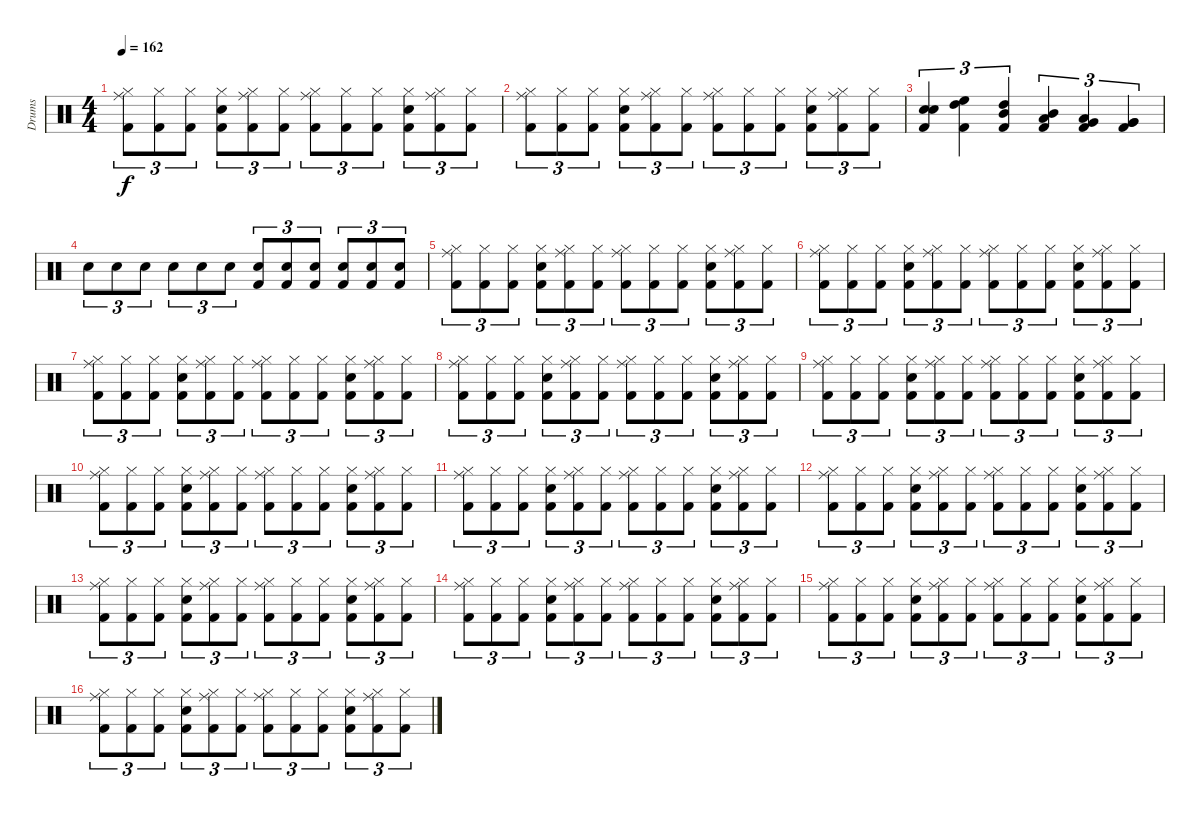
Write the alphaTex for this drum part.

\track ("Drums" "Drums") {instrument percussion}
\staff {score}
\articulation defaults
\ts (4 4)
\tempo 162
\clef neutral
\ks c
("Kick (hit) 2" "Ride (middle)" "Hi-Hat (closed)").8{tu (3 2) dy f} ("Kick (hit) 2" "Hi-Hat (closed)").8{tu (3 2)} ("Kick (hit) 2" "Hi-Hat (closed)").8{tu (3 2)} ("Kick (hit) 2" "Electric Snare (hit)" "Hi-Hat (closed)").8{tu (3 2)} ("Kick (hit) 2" "Ride (middle)" "Hi-Hat (closed)").8{tu (3 2)} ("Kick (hit) 2" "Hi-Hat (closed)").8{tu (3 2)} ("Kick (hit) 2" "Ride (middle)" "Hi-Hat (closed)").8{tu (3 2)} ("Kick (hit) 2" "Hi-Hat (closed)").8{tu (3 2)} ("Kick (hit) 2" "Hi-Hat (closed)").8{tu (3 2)} ("Kick (hit) 2" "Electric Snare (hit)" "Hi-Hat (closed)").8{tu (3 2)} ("Kick (hit) 2" "Ride (middle)" "Hi-Hat (closed)").8{tu (3 2)} ("Kick (hit) 2" "Hi-Hat (closed)").8{tu (3 2)} |
("Kick (hit) 2" "Ride (middle)" "Hi-Hat (closed)").8{tu (3 2)} ("Kick (hit) 2" "Hi-Hat (closed)").8{tu (3 2)} ("Kick (hit) 2" "Hi-Hat (closed)").8{tu (3 2)} ("Kick (hit) 2" "Electric Snare (hit)" "Hi-Hat (closed)").8{tu (3 2)} ("Kick (hit) 2" "Ride (middle)" "Hi-Hat (closed)").8{tu (3 2)} ("Kick (hit) 2" "Hi-Hat (closed)").8{tu (3 2)} ("Kick (hit) 2" "Ride (middle)" "Hi-Hat (closed)").8{tu (3 2)} ("Kick (hit) 2" "Hi-Hat (closed)").8{tu (3 2)} ("Kick (hit) 2" "Hi-Hat (closed)").8{tu (3 2)} ("Kick (hit) 2" "Electric Snare (hit)" "Hi-Hat (closed)").8{tu (3 2)} ("Kick (hit) 2" "Ride (middle)" "Hi-Hat (closed)").8{tu (3 2)} ("Kick (hit) 2" "Hi-Hat (closed)").8{tu (3 2)} |
("Electric Snare (hit)" "Snare (hit) 2" "Kick (hit) 2").4{tu (3 2)} ("High Tom (hit)" "High Floor Tom (hit)" "Kick (hit) 2").4{tu (3 2)} ("Mid Tom (hit)" "High Tom (hit)" "Kick (hit) 2").4{tu (3 2)} ("Low Tom (hit)" "Mid Tom (hit)" "Kick (hit) 2").4{tu (3 2)} ("Very Low Tom (hit)" "Low Tom (hit)" "Kick (hit) 2").4{tu (3 2)} ("Very Low Tom (hit)" "Very Low Tom (hit)" "Kick (hit) 2").4{tu (3 2)} |
"Electric Snare (hit)".8{tu (3 2)} "Electric Snare (hit)".8{tu (3 2)} "Electric Snare (hit)".8{tu (3 2)} "Electric Snare (hit)".8{tu (3 2)} "Electric Snare (hit)".8{tu (3 2)} "Electric Snare (hit)".8{tu (3 2)} ("Kick (hit) 2" "Snare (hit) 2").8{tu (3 2)} ("Kick (hit) 2" "Snare (hit) 2").8{tu (3 2)} ("Kick (hit) 2" "Snare (hit) 2").8{tu (3 2)} ("Kick (hit) 2" "Snare (hit) 2").8{tu (3 2)} ("Kick (hit) 2" "Snare (hit) 2").8{tu (3 2)} ("Kick (hit) 2" "Snare (hit) 2").8{tu (3 2)} |
("Kick (hit) 2" "Ride (middle)" "Hi-Hat (closed)").8{tu (3 2)} ("Kick (hit) 2" "Hi-Hat (closed)").8{tu (3 2)} ("Kick (hit) 2" "Hi-Hat (closed)").8{tu (3 2)} ("Kick (hit) 2" "Snare (hit) 2" "Hi-Hat (closed)").8{tu (3 2)} ("Kick (hit) 2" "Ride (middle)" "Hi-Hat (closed)").8{tu (3 2)} ("Kick (hit) 2" "Hi-Hat (closed)").8{tu (3 2)} ("Kick (hit) 2" "Ride (middle)" "Hi-Hat (closed)").8{tu (3 2)} ("Kick (hit) 2" "Hi-Hat (closed)").8{tu (3 2)} ("Kick (hit) 2" "Hi-Hat (closed)").8{tu (3 2)} ("Kick (hit) 2" "Snare (hit) 2" "Hi-Hat (closed)").8{tu (3 2)} ("Kick (hit) 2" "Ride (middle)" "Hi-Hat (closed)").8{tu (3 2)} ("Kick (hit) 2" "Hi-Hat (closed)").8{tu (3 2)} |
("Kick (hit) 2" "Ride (middle)" "Hi-Hat (closed)").8{tu (3 2)} ("Kick (hit) 2" "Hi-Hat (closed)").8{tu (3 2)} ("Kick (hit) 2" "Hi-Hat (closed)").8{tu (3 2)} ("Kick (hit) 2" "Snare (hit) 2" "Hi-Hat (closed)").8{tu (3 2)} ("Kick (hit) 2" "Ride (middle)" "Hi-Hat (closed)").8{tu (3 2)} ("Kick (hit) 2" "Hi-Hat (closed)").8{tu (3 2)} ("Kick (hit) 2" "Ride (middle)" "Hi-Hat (closed)").8{tu (3 2)} ("Kick (hit) 2" "Hi-Hat (closed)").8{tu (3 2)} ("Kick (hit) 2" "Hi-Hat (closed)").8{tu (3 2)} ("Kick (hit) 2" "Snare (hit) 2" "Hi-Hat (closed)").8{tu (3 2)} ("Kick (hit) 2" "Ride (middle)" "Hi-Hat (closed)").8{tu (3 2)} ("Kick (hit) 2" "Hi-Hat (closed)").8{tu (3 2)} |
("Kick (hit) 2" "Ride (middle)" "Hi-Hat (closed)").8{tu (3 2)} ("Kick (hit) 2" "Hi-Hat (closed)").8{tu (3 2)} ("Kick (hit) 2" "Hi-Hat (closed)").8{tu (3 2)} ("Kick (hit) 2" "Snare (hit) 2" "Hi-Hat (closed)").8{tu (3 2)} ("Kick (hit) 2" "Ride (middle)" "Hi-Hat (closed)").8{tu (3 2)} ("Kick (hit) 2" "Hi-Hat (closed)").8{tu (3 2)} ("Kick (hit) 2" "Ride (middle)" "Hi-Hat (closed)").8{tu (3 2)} ("Kick (hit) 2" "Hi-Hat (closed)").8{tu (3 2)} ("Kick (hit) 2" "Hi-Hat (closed)").8{tu (3 2)} ("Kick (hit) 2" "Snare (hit) 2" "Hi-Hat (closed)").8{tu (3 2)} ("Kick (hit) 2" "Ride (middle)" "Hi-Hat (closed)").8{tu (3 2)} ("Kick (hit) 2" "Hi-Hat (closed)").8{tu (3 2)} |
("Kick (hit) 2" "Ride (middle)" "Hi-Hat (closed)").8{tu (3 2)} ("Kick (hit) 2" "Hi-Hat (closed)").8{tu (3 2)} ("Kick (hit) 2" "Hi-Hat (closed)").8{tu (3 2)} ("Kick (hit) 2" "Snare (hit) 2" "Hi-Hat (closed)").8{tu (3 2)} ("Kick (hit) 2" "Ride (middle)" "Hi-Hat (closed)").8{tu (3 2)} ("Kick (hit) 2" "Hi-Hat (closed)").8{tu (3 2)} ("Kick (hit) 2" "Ride (middle)" "Hi-Hat (closed)").8{tu (3 2)} ("Kick (hit) 2" "Hi-Hat (closed)").8{tu (3 2)} ("Kick (hit) 2" "Hi-Hat (closed)").8{tu (3 2)} ("Kick (hit) 2" "Snare (hit) 2" "Hi-Hat (closed)").8{tu (3 2)} ("Kick (hit) 2" "Ride (middle)" "Hi-Hat (closed)").8{tu (3 2)} ("Kick (hit) 2" "Hi-Hat (closed)").8{tu (3 2)} |
("Kick (hit) 2" "Ride (middle)" "Hi-Hat (closed)").8{tu (3 2)} ("Kick (hit) 2" "Hi-Hat (closed)").8{tu (3 2)} ("Kick (hit) 2" "Hi-Hat (closed)").8{tu (3 2)} ("Kick (hit) 2" "Snare (hit) 2" "Hi-Hat (closed)").8{tu (3 2)} ("Kick (hit) 2" "Ride (middle)" "Hi-Hat (closed)").8{tu (3 2)} ("Kick (hit) 2" "Hi-Hat (closed)").8{tu (3 2)} ("Kick (hit) 2" "Ride (middle)" "Hi-Hat (closed)").8{tu (3 2)} ("Kick (hit) 2" "Hi-Hat (closed)").8{tu (3 2)} ("Kick (hit) 2" "Hi-Hat (closed)").8{tu (3 2)} ("Kick (hit) 2" "Snare (hit) 2" "Hi-Hat (closed)").8{tu (3 2)} ("Kick (hit) 2" "Ride (middle)" "Hi-Hat (closed)").8{tu (3 2)} ("Kick (hit) 2" "Hi-Hat (closed)").8{tu (3 2)} |
("Kick (hit) 2" "Ride (middle)" "Hi-Hat (closed)").8{tu (3 2)} ("Kick (hit) 2" "Hi-Hat (closed)").8{tu (3 2)} ("Kick (hit) 2" "Hi-Hat (closed)").8{tu (3 2)} ("Kick (hit) 2" "Snare (hit) 2" "Hi-Hat (closed)").8{tu (3 2)} ("Kick (hit) 2" "Ride (middle)" "Hi-Hat (closed)").8{tu (3 2)} ("Kick (hit) 2" "Hi-Hat (closed)").8{tu (3 2)} ("Kick (hit) 2" "Ride (middle)" "Hi-Hat (closed)").8{tu (3 2)} ("Kick (hit) 2" "Hi-Hat (closed)").8{tu (3 2)} ("Kick (hit) 2" "Hi-Hat (closed)").8{tu (3 2)} ("Kick (hit) 2" "Snare (hit) 2" "Hi-Hat (closed)").8{tu (3 2)} ("Kick (hit) 2" "Ride (middle)" "Hi-Hat (closed)").8{tu (3 2)} ("Kick (hit) 2" "Hi-Hat (closed)").8{tu (3 2)} |
("Kick (hit) 2" "Ride (middle)" "Hi-Hat (closed)").8{tu (3 2)} ("Kick (hit) 2" "Hi-Hat (closed)").8{tu (3 2)} ("Kick (hit) 2" "Hi-Hat (closed)").8{tu (3 2)} ("Kick (hit) 2" "Snare (hit) 2" "Hi-Hat (closed)").8{tu (3 2)} ("Kick (hit) 2" "Ride (middle)" "Hi-Hat (closed)").8{tu (3 2)} ("Kick (hit) 2" "Hi-Hat (closed)").8{tu (3 2)} ("Kick (hit) 2" "Ride (middle)" "Hi-Hat (closed)").8{tu (3 2)} ("Kick (hit) 2" "Hi-Hat (closed)").8{tu (3 2)} ("Kick (hit) 2" "Hi-Hat (closed)").8{tu (3 2)} ("Kick (hit) 2" "Snare (hit) 2" "Hi-Hat (closed)").8{tu (3 2)} ("Kick (hit) 2" "Ride (middle)" "Hi-Hat (closed)").8{tu (3 2)} ("Kick (hit) 2" "Hi-Hat (closed)").8{tu (3 2)} |
("Kick (hit) 2" "Ride (middle)" "Hi-Hat (closed)").8{tu (3 2)} ("Kick (hit) 2" "Hi-Hat (closed)").8{tu (3 2)} ("Kick (hit) 2" "Hi-Hat (closed)").8{tu (3 2)} ("Kick (hit) 2" "Snare (hit) 2" "Hi-Hat (closed)").8{tu (3 2)} ("Kick (hit) 2" "Ride (middle)" "Hi-Hat (closed)").8{tu (3 2)} ("Kick (hit) 2" "Hi-Hat (closed)").8{tu (3 2)} ("Kick (hit) 2" "Ride (middle)" "Hi-Hat (closed)").8{tu (3 2)} ("Kick (hit) 2" "Hi-Hat (closed)").8{tu (3 2)} ("Kick (hit) 2" "Hi-Hat (closed)").8{tu (3 2)} ("Kick (hit) 2" "Snare (hit) 2" "Hi-Hat (closed)").8{tu (3 2)} ("Kick (hit) 2" "Ride (middle)" "Hi-Hat (closed)").8{tu (3 2)} ("Kick (hit) 2" "Hi-Hat (closed)").8{tu (3 2)} |
("Kick (hit) 2" "Ride (middle)" "Hi-Hat (closed)").8{tu (3 2)} ("Kick (hit) 2" "Hi-Hat (closed)").8{tu (3 2)} ("Kick (hit) 2" "Hi-Hat (closed)").8{tu (3 2)} ("Kick (hit) 2" "Snare (hit) 2" "Hi-Hat (closed)").8{tu (3 2)} ("Kick (hit) 2" "Ride (middle)" "Hi-Hat (closed)").8{tu (3 2)} ("Kick (hit) 2" "Hi-Hat (closed)").8{tu (3 2)} ("Kick (hit) 2" "Ride (middle)" "Hi-Hat (closed)").8{tu (3 2)} ("Kick (hit) 2" "Hi-Hat (closed)").8{tu (3 2)} ("Kick (hit) 2" "Hi-Hat (closed)").8{tu (3 2)} ("Kick (hit) 2" "Snare (hit) 2" "Hi-Hat (closed)").8{tu (3 2)} ("Kick (hit) 2" "Ride (middle)" "Hi-Hat (closed)").8{tu (3 2)} ("Kick (hit) 2" "Hi-Hat (closed)").8{tu (3 2)} |
("Kick (hit) 2" "Ride (middle)" "Hi-Hat (closed)").8{tu (3 2)} ("Kick (hit) 2" "Hi-Hat (closed)").8{tu (3 2)} ("Kick (hit) 2" "Hi-Hat (closed)").8{tu (3 2)} ("Kick (hit) 2" "Snare (hit) 2" "Hi-Hat (closed)").8{tu (3 2)} ("Kick (hit) 2" "Ride (middle)" "Hi-Hat (closed)").8{tu (3 2)} ("Kick (hit) 2" "Hi-Hat (closed)").8{tu (3 2)} ("Kick (hit) 2" "Ride (middle)" "Hi-Hat (closed)").8{tu (3 2)} ("Kick (hit) 2" "Hi-Hat (closed)").8{tu (3 2)} ("Kick (hit) 2" "Hi-Hat (closed)").8{tu (3 2)} ("Kick (hit) 2" "Snare (hit) 2" "Hi-Hat (closed)").8{tu (3 2)} ("Kick (hit) 2" "Ride (middle)" "Hi-Hat (closed)").8{tu (3 2)} ("Kick (hit) 2" "Hi-Hat (closed)").8{tu (3 2)} |
("Kick (hit) 2" "Ride (middle)" "Hi-Hat (closed)").8{tu (3 2)} ("Kick (hit) 2" "Hi-Hat (closed)").8{tu (3 2)} ("Kick (hit) 2" "Hi-Hat (closed)").8{tu (3 2)} ("Kick (hit) 2" "Snare (hit) 2" "Hi-Hat (closed)").8{tu (3 2)} ("Kick (hit) 2" "Ride (middle)" "Hi-Hat (closed)").8{tu (3 2)} ("Kick (hit) 2" "Hi-Hat (closed)").8{tu (3 2)} ("Kick (hit) 2" "Ride (middle)" "Hi-Hat (closed)").8{tu (3 2)} ("Kick (hit) 2" "Hi-Hat (closed)").8{tu (3 2)} ("Kick (hit) 2" "Hi-Hat (closed)").8{tu (3 2)} ("Kick (hit) 2" "Snare (hit) 2" "Hi-Hat (closed)").8{tu (3 2)} ("Kick (hit) 2" "Ride (middle)" "Hi-Hat (closed)").8{tu (3 2)} ("Kick (hit) 2" "Hi-Hat (closed)").8{tu (3 2)} |
("Kick (hit) 2" "Ride (middle)" "Hi-Hat (closed)").8{tu (3 2)} ("Kick (hit) 2" "Hi-Hat (closed)").8{tu (3 2)} ("Kick (hit) 2" "Hi-Hat (closed)").8{tu (3 2)} ("Kick (hit) 2" "Snare (hit) 2" "Hi-Hat (closed)").8{tu (3 2)} ("Kick (hit) 2" "Ride (middle)" "Hi-Hat (closed)").8{tu (3 2)} ("Kick (hit) 2" "Hi-Hat (closed)").8{tu (3 2)} ("Kick (hit) 2" "Ride (middle)" "Hi-Hat (closed)").8{tu (3 2)} ("Kick (hit) 2" "Hi-Hat (closed)").8{tu (3 2)} ("Kick (hit) 2" "Hi-Hat (closed)").8{tu (3 2)} ("Kick (hit) 2" "Snare (hit) 2" "Hi-Hat (closed)").8{tu (3 2)} ("Kick (hit) 2" "Ride (middle)" "Hi-Hat (closed)").8{tu (3 2)} ("Kick (hit) 2" "Hi-Hat (closed)").8{tu (3 2)}
